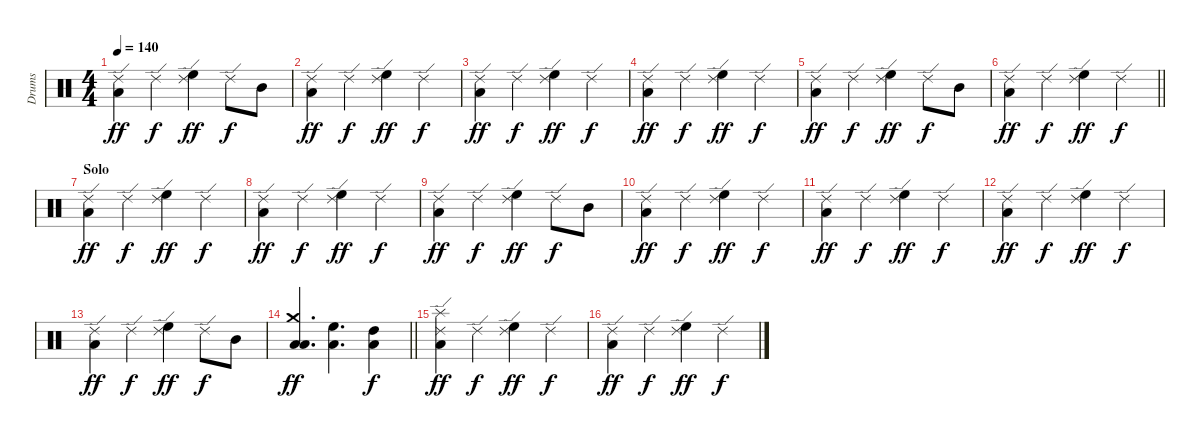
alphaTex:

\track ("Drums" "Drums") {instrument percussion}
\staff {score}
\articulation defaults
\ts (4 4)
\tempo 140
\clef neutral
\ks c
("Low Tom (hit)" "Ride (edge) 2").4{dy ff} "Ride (edge) 2".4{dy f} ("High Floor Tom (hit)" "Ride (edge) 2").4{dy ff} "Ride (edge) 2".8{dy f} "Mid Tom (hit)".8 |
("Low Tom (hit)" "Ride (edge) 2").4{dy ff} "Ride (edge) 2".4{dy f} ("High Floor Tom (hit)" "Ride (edge) 2").4{dy ff} "Ride (edge) 2".4{dy f} |
("Low Tom (hit)" "Ride (edge) 2").4{dy ff} "Ride (edge) 2".4{dy f} ("High Floor Tom (hit)" "Ride (edge) 2").4{dy ff} "Ride (edge) 2".4{dy f} |
("Low Tom (hit)" "Ride (edge) 2").4{dy ff} "Ride (edge) 2".4{dy f} ("High Floor Tom (hit)" "Ride (edge) 2").4{dy ff} "Ride (edge) 2".4{dy f} |
("Low Tom (hit)" "Ride (edge) 2").4{dy ff} "Ride (edge) 2".4{dy f} ("High Floor Tom (hit)" "Ride (edge) 2").4{dy ff} "Ride (edge) 2".8{dy f} "Mid Tom (hit)".8 |
\barLineRight lightlight
("Low Tom (hit)" "Ride (edge) 2").4{dy ff} "Ride (edge) 2".4{dy f} ("High Floor Tom (hit)" "Ride (edge) 2").4{dy ff} "Ride (edge) 2".4{dy f} |
\section ("" "Solo")
("Low Tom (hit)" "Ride (edge) 2").4{dy ff} "Ride (edge) 2".4{dy f} ("High Floor Tom (hit)" "Ride (edge) 2").4{dy ff} "Ride (edge) 2".4{dy f} |
("Low Tom (hit)" "Ride (edge) 2").4{dy ff} "Ride (edge) 2".4{dy f} ("High Floor Tom (hit)" "Ride (edge) 2").4{dy ff} "Ride (edge) 2".4{dy f} |
("Low Tom (hit)" "Ride (edge) 2").4{dy ff} "Ride (edge) 2".4{dy f} ("High Floor Tom (hit)" "Ride (edge) 2").4{dy ff} "Ride (edge) 2".8{dy f} "Mid Tom (hit)".8 |
("Low Tom (hit)" "Ride (edge) 2").4{dy ff} "Ride (edge) 2".4{dy f} ("High Floor Tom (hit)" "Ride (edge) 2").4{dy ff} "Ride (edge) 2".4{dy f} |
("Low Tom (hit)" "Ride (edge) 2").4{dy ff} "Ride (edge) 2".4{dy f} ("High Floor Tom (hit)" "Ride (edge) 2").4{dy ff} "Ride (edge) 2".4{dy f} |
("Low Tom (hit)" "Ride (edge) 2").4{dy ff} "Ride (edge) 2".4{dy f} ("High Floor Tom (hit)" "Ride (edge) 2").4{dy ff} "Ride (edge) 2".4{dy f} |
("Low Tom (hit)" "Ride (edge) 2").4{dy ff} "Ride (edge) 2".4{dy f} ("High Floor Tom (hit)" "Ride (edge) 2").4{dy ff} "Ride (edge) 2".8{dy f} "Mid Tom (hit)".8 |
\barLineRight lightlight
("Low Tom (hit)" "Crash medium (hit)" "Low Floor Tom (hit)").4{d dy ff} ("High Floor Tom (hit)" "Low Floor Tom (hit)").4{d} ("High Tom (hit)" "Low Floor Tom (hit)").4{dy f} |
("Low Tom (hit)" "Ride (edge) 2" "Splash (hit)").4{dy ff} "Ride (edge) 2".4{dy f} ("High Floor Tom (hit)" "Ride (edge) 2").4{dy ff} "Ride (edge) 2".4{dy f} |
("Low Tom (hit)" "Ride (edge) 2").4{dy ff} "Ride (edge) 2".4{dy f} ("High Floor Tom (hit)" "Ride (edge) 2").4{dy ff} "Ride (edge) 2".4{dy f}
